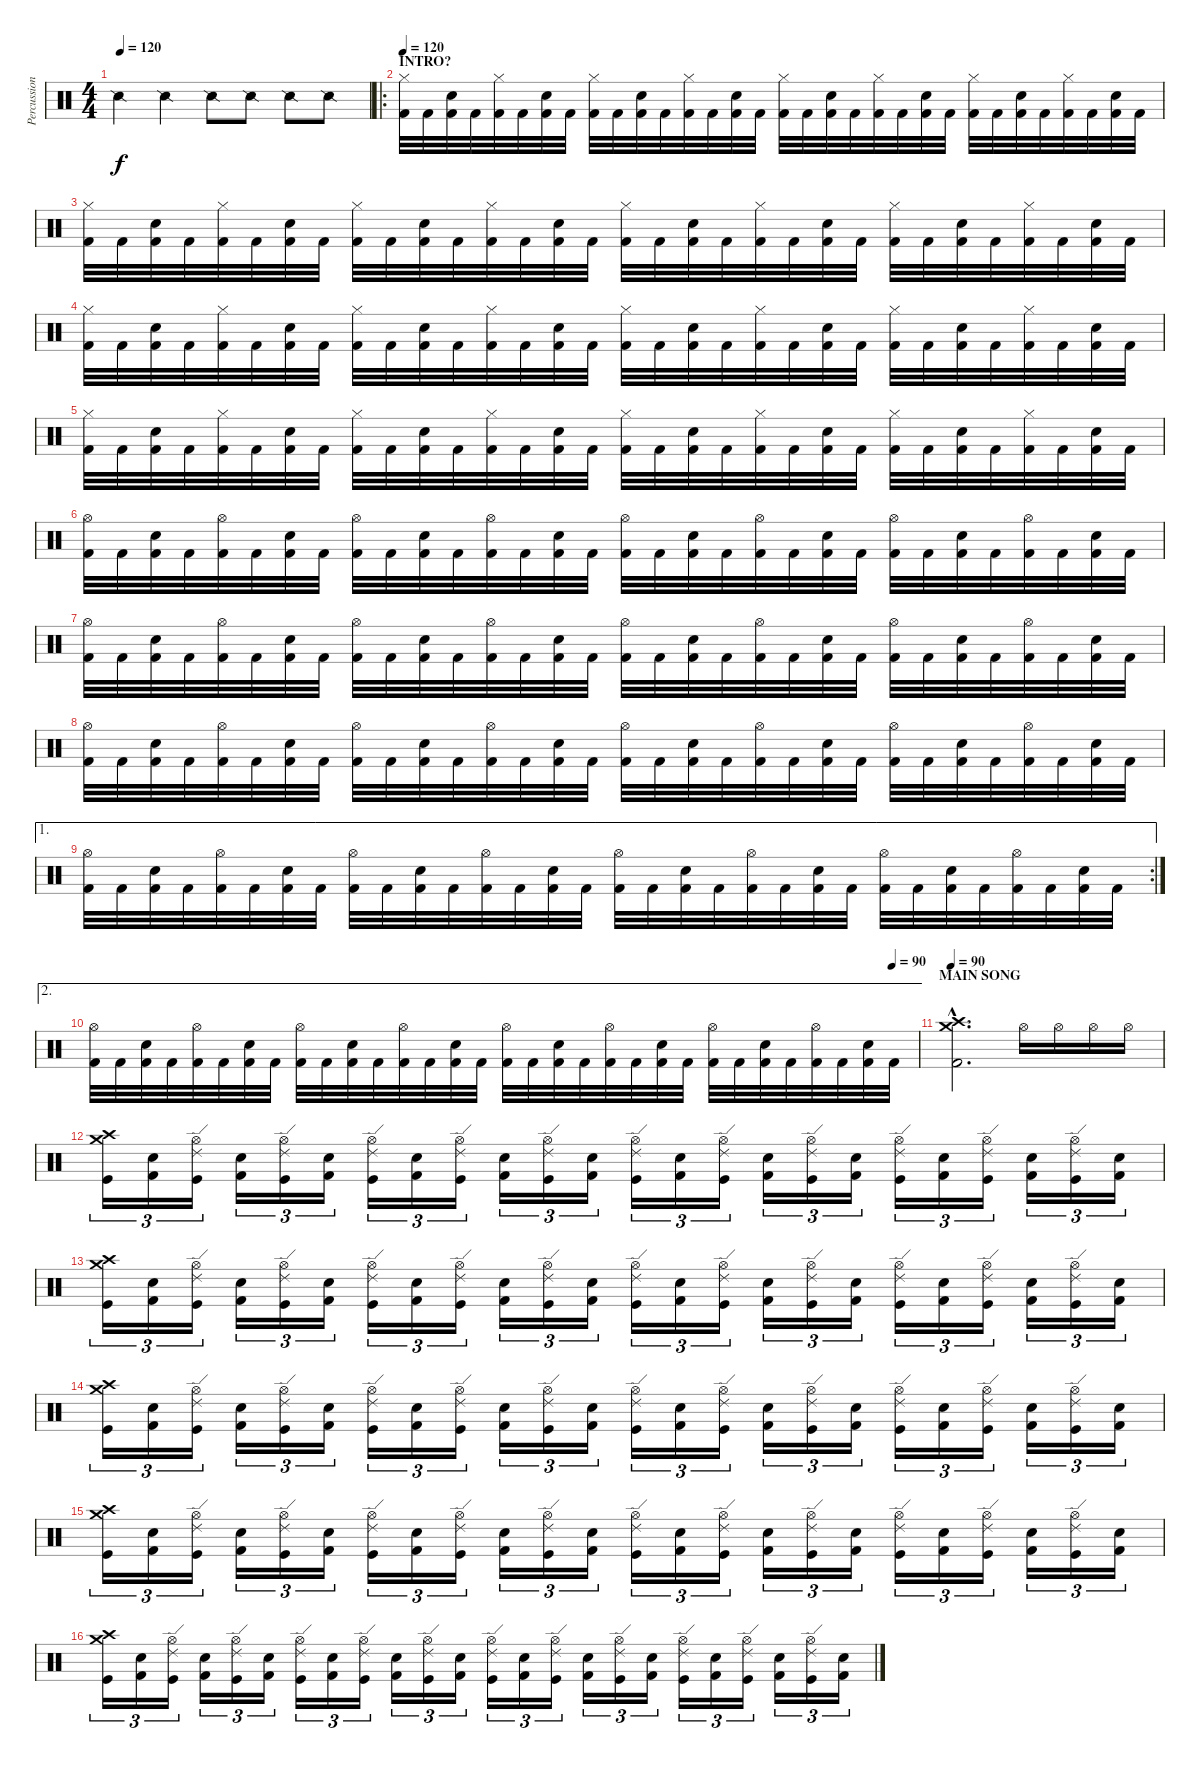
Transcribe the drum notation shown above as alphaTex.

\track ("Percussion" "Percussion") {instrument percussion}
\staff {score}
\articulation defaults
\ts (4 4)
\tempo 120
\clef neutral
\ks c "Snare (side stick) 2".4{dy f} "Snare (side stick) 2".4 "Snare (side stick) 2".8 "Snare (side stick) 2".8 "Snare (side stick) 2".8 "Snare (side stick) 2".8
|
\ro
\section ("" "INTRO?")
\tempo 120
("Hi-Hat (closed)" "Kick (hit) 2").32 "Kick (hit) 2".32 ("Snare (hit) 2" "Kick (hit) 2").32 "Kick (hit) 2".32 ("Hi-Hat (closed)" "Kick (hit) 2").32 "Kick (hit) 2".32 ("Snare (hit) 2" "Kick (hit) 2").32 "Kick (hit) 2".32 ("Hi-Hat (closed)" "Kick (hit) 2").32 "Kick (hit) 2".32 ("Snare (hit) 2" "Kick (hit) 2").32 "Kick (hit) 2".32 ("Hi-Hat (closed)" "Kick (hit) 2").32 "Kick (hit) 2".32 ("Snare (hit) 2" "Kick (hit) 2").32 "Kick (hit) 2".32 ("Hi-Hat (closed)" "Kick (hit) 2").32 "Kick (hit) 2".32 ("Snare (hit) 2" "Kick (hit) 2").32 "Kick (hit) 2".32 ("Hi-Hat (closed)" "Kick (hit) 2").32 "Kick (hit) 2".32 ("Snare (hit) 2" "Kick (hit) 2").32 "Kick (hit) 2".32 ("Hi-Hat (closed)" "Kick (hit) 2").32 "Kick (hit) 2".32 ("Snare (hit) 2" "Kick (hit) 2").32 "Kick (hit) 2".32 ("Hi-Hat (closed)" "Kick (hit) 2").32 "Kick (hit) 2".32 ("Snare (hit) 2" "Kick (hit) 2").32 "Kick (hit) 2".32 |
("Hi-Hat (closed)" "Kick (hit) 2").32 "Kick (hit) 2".32 ("Snare (hit) 2" "Kick (hit) 2").32 "Kick (hit) 2".32 ("Hi-Hat (closed)" "Kick (hit) 2").32 "Kick (hit) 2".32 ("Snare (hit) 2" "Kick (hit) 2").32 "Kick (hit) 2".32 ("Hi-Hat (closed)" "Kick (hit) 2").32 "Kick (hit) 2".32 ("Snare (hit) 2" "Kick (hit) 2").32 "Kick (hit) 2".32 ("Hi-Hat (closed)" "Kick (hit) 2").32 "Kick (hit) 2".32 ("Snare (hit) 2" "Kick (hit) 2").32 "Kick (hit) 2".32 ("Hi-Hat (closed)" "Kick (hit) 2").32 "Kick (hit) 2".32 ("Snare (hit) 2" "Kick (hit) 2").32 "Kick (hit) 2".32 ("Hi-Hat (closed)" "Kick (hit) 2").32 "Kick (hit) 2".32 ("Snare (hit) 2" "Kick (hit) 2").32 "Kick (hit) 2".32 ("Hi-Hat (closed)" "Kick (hit) 2").32 "Kick (hit) 2".32 ("Snare (hit) 2" "Kick (hit) 2").32 "Kick (hit) 2".32 ("Hi-Hat (closed)" "Kick (hit) 2").32 "Kick (hit) 2".32 ("Snare (hit) 2" "Kick (hit) 2").32 "Kick (hit) 2".32 |
("Hi-Hat (closed)" "Kick (hit) 2").32 "Kick (hit) 2".32 ("Snare (hit) 2" "Kick (hit) 2").32 "Kick (hit) 2".32 ("Hi-Hat (closed)" "Kick (hit) 2").32 "Kick (hit) 2".32 ("Snare (hit) 2" "Kick (hit) 2").32 "Kick (hit) 2".32 ("Hi-Hat (closed)" "Kick (hit) 2").32 "Kick (hit) 2".32 ("Snare (hit) 2" "Kick (hit) 2").32 "Kick (hit) 2".32 ("Hi-Hat (closed)" "Kick (hit) 2").32 "Kick (hit) 2".32 ("Snare (hit) 2" "Kick (hit) 2").32 "Kick (hit) 2".32 ("Hi-Hat (closed)" "Kick (hit) 2").32 "Kick (hit) 2".32 ("Snare (hit) 2" "Kick (hit) 2").32 "Kick (hit) 2".32 ("Hi-Hat (closed)" "Kick (hit) 2").32 "Kick (hit) 2".32 ("Snare (hit) 2" "Kick (hit) 2").32 "Kick (hit) 2".32 ("Hi-Hat (closed)" "Kick (hit) 2").32 "Kick (hit) 2".32 ("Snare (hit) 2" "Kick (hit) 2").32 "Kick (hit) 2".32 ("Hi-Hat (closed)" "Kick (hit) 2").32 "Kick (hit) 2".32 ("Snare (hit) 2" "Kick (hit) 2").32 "Kick (hit) 2".32 |
("Hi-Hat (closed)" "Kick (hit) 2").32 "Kick (hit) 2".32 ("Snare (hit) 2" "Kick (hit) 2").32 "Kick (hit) 2".32 ("Hi-Hat (closed)" "Kick (hit) 2").32 "Kick (hit) 2".32 ("Snare (hit) 2" "Kick (hit) 2").32 "Kick (hit) 2".32 ("Hi-Hat (closed)" "Kick (hit) 2").32 "Kick (hit) 2".32 ("Snare (hit) 2" "Kick (hit) 2").32 "Kick (hit) 2".32 ("Hi-Hat (closed)" "Kick (hit) 2").32 "Kick (hit) 2".32 ("Snare (hit) 2" "Kick (hit) 2").32 "Kick (hit) 2".32 ("Hi-Hat (closed)" "Kick (hit) 2").32 "Kick (hit) 2".32 ("Snare (hit) 2" "Kick (hit) 2").32 "Kick (hit) 2".32 ("Hi-Hat (closed)" "Kick (hit) 2").32 "Kick (hit) 2".32 ("Snare (hit) 2" "Kick (hit) 2").32 "Kick (hit) 2".32 ("Hi-Hat (closed)" "Kick (hit) 2").32 "Kick (hit) 2".32 ("Snare (hit) 2" "Kick (hit) 2").32 "Kick (hit) 2".32 ("Hi-Hat (closed)" "Kick (hit) 2").32 "Kick (hit) 2".32 ("Snare (hit) 2" "Kick (hit) 2").32 "Kick (hit) 2".32 |
("Hi-Hat (open)" "Kick (hit) 2").32 "Kick (hit) 2".32 ("Electric Snare (hit)" "Kick (hit) 2").32 "Kick (hit) 2".32 ("Hi-Hat (open)" "Kick (hit) 2").32 "Kick (hit) 2".32 ("Electric Snare (hit)" "Kick (hit) 2").32 "Kick (hit) 2".32 ("Hi-Hat (open)" "Kick (hit) 2").32 "Kick (hit) 2".32 ("Electric Snare (hit)" "Kick (hit) 2").32 "Kick (hit) 2".32 ("Hi-Hat (open)" "Kick (hit) 2").32 "Kick (hit) 2".32 ("Electric Snare (hit)" "Kick (hit) 2").32 "Kick (hit) 2".32 ("Hi-Hat (open)" "Kick (hit) 2").32 "Kick (hit) 2".32 ("Electric Snare (hit)" "Kick (hit) 2").32 "Kick (hit) 2".32 ("Hi-Hat (open)" "Kick (hit) 2").32 "Kick (hit) 2".32 ("Electric Snare (hit)" "Kick (hit) 2").32 "Kick (hit) 2".32 ("Hi-Hat (open)" "Kick (hit) 2").32 "Kick (hit) 2".32 ("Electric Snare (hit)" "Kick (hit) 2").32 "Kick (hit) 2".32 ("Hi-Hat (open)" "Kick (hit) 2").32 "Kick (hit) 2".32 ("Electric Snare (hit)" "Kick (hit) 2").32 "Kick (hit) 2".32 |
("Hi-Hat (open)" "Kick (hit) 2").32 "Kick (hit) 2".32 ("Electric Snare (hit)" "Kick (hit) 2").32 "Kick (hit) 2".32 ("Hi-Hat (open)" "Kick (hit) 2").32 "Kick (hit) 2".32 ("Electric Snare (hit)" "Kick (hit) 2").32 "Kick (hit) 2".32 ("Hi-Hat (open)" "Kick (hit) 2").32 "Kick (hit) 2".32 ("Electric Snare (hit)" "Kick (hit) 2").32 "Kick (hit) 2".32 ("Hi-Hat (open)" "Kick (hit) 2").32 "Kick (hit) 2".32 ("Electric Snare (hit)" "Kick (hit) 2").32 "Kick (hit) 2".32 ("Hi-Hat (open)" "Kick (hit) 2").32 "Kick (hit) 2".32 ("Electric Snare (hit)" "Kick (hit) 2").32 "Kick (hit) 2".32 ("Hi-Hat (open)" "Kick (hit) 2").32 "Kick (hit) 2".32 ("Electric Snare (hit)" "Kick (hit) 2").32 "Kick (hit) 2".32 ("Hi-Hat (open)" "Kick (hit) 2").32 "Kick (hit) 2".32 ("Electric Snare (hit)" "Kick (hit) 2").32 "Kick (hit) 2".32 ("Hi-Hat (open)" "Kick (hit) 2").32 "Kick (hit) 2".32 ("Electric Snare (hit)" "Kick (hit) 2").32 "Kick (hit) 2".32 |
("Hi-Hat (open)" "Kick (hit) 2").32 "Kick (hit) 2".32 ("Electric Snare (hit)" "Kick (hit) 2").32 "Kick (hit) 2".32 ("Hi-Hat (open)" "Kick (hit) 2").32 "Kick (hit) 2".32 ("Electric Snare (hit)" "Kick (hit) 2").32 "Kick (hit) 2".32 ("Hi-Hat (open)" "Kick (hit) 2").32 "Kick (hit) 2".32 ("Electric Snare (hit)" "Kick (hit) 2").32 "Kick (hit) 2".32 ("Hi-Hat (open)" "Kick (hit) 2").32 "Kick (hit) 2".32 ("Electric Snare (hit)" "Kick (hit) 2").32 "Kick (hit) 2".32 ("Hi-Hat (open)" "Kick (hit) 2").32 "Kick (hit) 2".32 ("Electric Snare (hit)" "Kick (hit) 2").32 "Kick (hit) 2".32 ("Hi-Hat (open)" "Kick (hit) 2").32 "Kick (hit) 2".32 ("Electric Snare (hit)" "Kick (hit) 2").32 "Kick (hit) 2".32 ("Hi-Hat (open)" "Kick (hit) 2").32 "Kick (hit) 2".32 ("Electric Snare (hit)" "Kick (hit) 2").32 "Kick (hit) 2".32 ("Hi-Hat (open)" "Kick (hit) 2").32 "Kick (hit) 2".32 ("Electric Snare (hit)" "Kick (hit) 2").32 "Kick (hit) 2".32 |
\ae 1
\rc 2
("Hi-Hat (open)" "Kick (hit) 2").32 "Kick (hit) 2".32 ("Electric Snare (hit)" "Kick (hit) 2").32 "Kick (hit) 2".32 ("Hi-Hat (open)" "Kick (hit) 2").32 "Kick (hit) 2".32 ("Electric Snare (hit)" "Kick (hit) 2").32 "Kick (hit) 2".32 ("Hi-Hat (open)" "Kick (hit) 2").32 "Kick (hit) 2".32 ("Electric Snare (hit)" "Kick (hit) 2").32 "Kick (hit) 2".32 ("Hi-Hat (open)" "Kick (hit) 2").32 "Kick (hit) 2".32 ("Electric Snare (hit)" "Kick (hit) 2").32 "Kick (hit) 2".32 ("Hi-Hat (open)" "Kick (hit) 2").32 "Kick (hit) 2".32 ("Electric Snare (hit)" "Kick (hit) 2").32 "Kick (hit) 2".32 ("Hi-Hat (open)" "Kick (hit) 2").32 "Kick (hit) 2".32 ("Electric Snare (hit)" "Kick (hit) 2").32 "Kick (hit) 2".32 ("Hi-Hat (open)" "Kick (hit) 2").32 "Kick (hit) 2".32 ("Electric Snare (hit)" "Kick (hit) 2").32 "Kick (hit) 2".32 ("Hi-Hat (open)" "Kick (hit) 2").32 "Kick (hit) 2".32 ("Electric Snare (hit)" "Kick (hit) 2").32 "Kick (hit) 2".32 |
\ae 2
\tempo (90 0.96875)
("Hi-Hat (open)" "Kick (hit) 2").32 "Kick (hit) 2".32 ("Electric Snare (hit)" "Kick (hit) 2").32 "Kick (hit) 2".32 ("Hi-Hat (open)" "Kick (hit) 2").32 "Kick (hit) 2".32 ("Electric Snare (hit)" "Kick (hit) 2").32 "Kick (hit) 2".32 ("Hi-Hat (open)" "Kick (hit) 2").32 "Kick (hit) 2".32 ("Electric Snare (hit)" "Kick (hit) 2").32 "Kick (hit) 2".32 ("Hi-Hat (open)" "Kick (hit) 2").32 "Kick (hit) 2".32 ("Electric Snare (hit)" "Kick (hit) 2").32 "Kick (hit) 2".32 ("Hi-Hat (open)" "Kick (hit) 2").32 "Kick (hit) 2".32 ("Electric Snare (hit)" "Kick (hit) 2").32 "Kick (hit) 2".32 ("Hi-Hat (open)" "Kick (hit) 2").32 "Kick (hit) 2".32 ("Electric Snare (hit)" "Kick (hit) 2").32 "Kick (hit) 2".32 ("Hi-Hat (open)" "Kick (hit) 2").32 "Kick (hit) 2".32 ("Electric Snare (hit)" "Kick (hit) 2").32 "Kick (hit) 2".32 ("Hi-Hat (open)" "Kick (hit) 2").32 "Kick (hit) 2".32 ("Electric Snare (hit)" "Kick (hit) 2").32 "Kick (hit) 2".32 |
\section ("" "MAIN SONG")
\tempo 90
("Crash medium (hit)"{hac} "Crash high (hit)"{hac} "Kick (hit) 2"{hac}).2{d} "Hi-Hat (open)".16 "Hi-Hat (open)".16 "Hi-Hat (open)".16 "Hi-Hat (open)".16 |
("Crash high (hit)" "Crash medium (hit)" "Kick (hit)").16{tu (3 2)} ("Snare (hit) 2" "Kick (hit) 2").16{tu (3 2)} ("Hi-Hat (open)" "Ride (edge) 2" "Kick (hit)").16{tu (3 2)} ("Snare (hit) 2" "Kick (hit) 2").16{tu (3 2)} ("Hi-Hat (open)" "Ride (edge) 2" "Kick (hit)").16{tu (3 2)} ("Snare (hit) 2" "Kick (hit) 2").16{tu (3 2)} ("Hi-Hat (open)" "Ride (edge) 2" "Kick (hit)").16{tu (3 2)} ("Snare (hit) 2" "Kick (hit) 2").16{tu (3 2)} ("Hi-Hat (open)" "Ride (edge) 2" "Kick (hit)").16{tu (3 2)} ("Snare (hit) 2" "Kick (hit) 2").16{tu (3 2)} ("Hi-Hat (open)" "Ride (edge) 2" "Kick (hit)").16{tu (3 2)} ("Snare (hit) 2" "Kick (hit) 2").16{tu (3 2)} ("Hi-Hat (open)" "Ride (edge) 2" "Kick (hit)").16{tu (3 2)} ("Snare (hit) 2" "Kick (hit) 2").16{tu (3 2)} ("Hi-Hat (open)" "Ride (edge) 2" "Kick (hit)").16{tu (3 2)} ("Snare (hit) 2" "Kick (hit) 2").16{tu (3 2)} ("Hi-Hat (open)" "Ride (edge) 2" "Kick (hit)").16{tu (3 2)} ("Snare (hit) 2" "Kick (hit) 2").16{tu (3 2)} ("Hi-Hat (open)" "Ride (edge) 2" "Kick (hit)").16{tu (3 2)} ("Snare (hit) 2" "Kick (hit) 2").16{tu (3 2)} ("Hi-Hat (open)" "Ride (edge) 2" "Kick (hit)").16{tu (3 2)} ("Snare (hit) 2" "Kick (hit) 2").16{tu (3 2)} ("Hi-Hat (open)" "Ride (edge) 2" "Kick (hit)").16{tu (3 2)} ("Snare (hit) 2" "Kick (hit) 2").16{tu (3 2)} |
("Crash high (hit)" "Crash medium (hit)" "Kick (hit)").16{tu (3 2)} ("Snare (hit) 2" "Kick (hit) 2").16{tu (3 2)} ("Hi-Hat (open)" "Ride (edge) 2" "Kick (hit)").16{tu (3 2)} ("Snare (hit) 2" "Kick (hit) 2").16{tu (3 2)} ("Hi-Hat (open)" "Ride (edge) 2" "Kick (hit)").16{tu (3 2)} ("Snare (hit) 2" "Kick (hit) 2").16{tu (3 2)} ("Hi-Hat (open)" "Ride (edge) 2" "Kick (hit)").16{tu (3 2)} ("Snare (hit) 2" "Kick (hit) 2").16{tu (3 2)} ("Hi-Hat (open)" "Ride (edge) 2" "Kick (hit)").16{tu (3 2)} ("Snare (hit) 2" "Kick (hit) 2").16{tu (3 2)} ("Hi-Hat (open)" "Ride (edge) 2" "Kick (hit)").16{tu (3 2)} ("Snare (hit) 2" "Kick (hit) 2").16{tu (3 2)} ("Hi-Hat (open)" "Ride (edge) 2" "Kick (hit)").16{tu (3 2)} ("Snare (hit) 2" "Kick (hit) 2").16{tu (3 2)} ("Hi-Hat (open)" "Ride (edge) 2" "Kick (hit)").16{tu (3 2)} ("Snare (hit) 2" "Kick (hit) 2").16{tu (3 2)} ("Hi-Hat (open)" "Ride (edge) 2" "Kick (hit)").16{tu (3 2)} ("Snare (hit) 2" "Kick (hit) 2").16{tu (3 2)} ("Hi-Hat (open)" "Ride (edge) 2" "Kick (hit)").16{tu (3 2)} ("Snare (hit) 2" "Kick (hit) 2").16{tu (3 2)} ("Hi-Hat (open)" "Ride (edge) 2" "Kick (hit)").16{tu (3 2)} ("Snare (hit) 2" "Kick (hit) 2").16{tu (3 2)} ("Hi-Hat (open)" "Ride (edge) 2" "Kick (hit)").16{tu (3 2)} ("Snare (hit) 2" "Kick (hit) 2").16{tu (3 2)} |
("Crash high (hit)" "Crash medium (hit)" "Kick (hit)").16{tu (3 2)} ("Snare (hit) 2" "Kick (hit) 2").16{tu (3 2)} ("Hi-Hat (open)" "Ride (edge) 2" "Kick (hit)").16{tu (3 2)} ("Snare (hit) 2" "Kick (hit) 2").16{tu (3 2)} ("Hi-Hat (open)" "Ride (edge) 2" "Kick (hit)").16{tu (3 2)} ("Snare (hit) 2" "Kick (hit) 2").16{tu (3 2)} ("Hi-Hat (open)" "Ride (edge) 2" "Kick (hit)").16{tu (3 2)} ("Snare (hit) 2" "Kick (hit) 2").16{tu (3 2)} ("Hi-Hat (open)" "Ride (edge) 2" "Kick (hit)").16{tu (3 2)} ("Snare (hit) 2" "Kick (hit) 2").16{tu (3 2)} ("Hi-Hat (open)" "Ride (edge) 2" "Kick (hit)").16{tu (3 2)} ("Snare (hit) 2" "Kick (hit) 2").16{tu (3 2)} ("Hi-Hat (open)" "Ride (edge) 2" "Kick (hit)").16{tu (3 2)} ("Snare (hit) 2" "Kick (hit) 2").16{tu (3 2)} ("Hi-Hat (open)" "Ride (edge) 2" "Kick (hit)").16{tu (3 2)} ("Snare (hit) 2" "Kick (hit) 2").16{tu (3 2)} ("Hi-Hat (open)" "Ride (edge) 2" "Kick (hit)").16{tu (3 2)} ("Snare (hit) 2" "Kick (hit) 2").16{tu (3 2)} ("Hi-Hat (open)" "Ride (edge) 2" "Kick (hit)").16{tu (3 2)} ("Snare (hit) 2" "Kick (hit) 2").16{tu (3 2)} ("Hi-Hat (open)" "Ride (edge) 2" "Kick (hit)").16{tu (3 2)} ("Snare (hit) 2" "Kick (hit) 2").16{tu (3 2)} ("Hi-Hat (open)" "Ride (edge) 2" "Kick (hit)").16{tu (3 2)} ("Snare (hit) 2" "Kick (hit) 2").16{tu (3 2)} |
("Crash high (hit)" "Crash medium (hit)" "Kick (hit)").16{tu (3 2)} ("Snare (hit) 2" "Kick (hit) 2").16{tu (3 2)} ("Hi-Hat (open)" "Ride (edge) 2" "Kick (hit)").16{tu (3 2)} ("Snare (hit) 2" "Kick (hit) 2").16{tu (3 2)} ("Hi-Hat (open)" "Ride (edge) 2" "Kick (hit)").16{tu (3 2)} ("Snare (hit) 2" "Kick (hit) 2").16{tu (3 2)} ("Hi-Hat (open)" "Ride (edge) 2" "Kick (hit)").16{tu (3 2)} ("Snare (hit) 2" "Kick (hit) 2").16{tu (3 2)} ("Hi-Hat (open)" "Ride (edge) 2" "Kick (hit)").16{tu (3 2)} ("Snare (hit) 2" "Kick (hit) 2").16{tu (3 2)} ("Hi-Hat (open)" "Ride (edge) 2" "Kick (hit)").16{tu (3 2)} ("Snare (hit) 2" "Kick (hit) 2").16{tu (3 2)} ("Hi-Hat (open)" "Ride (edge) 2" "Kick (hit)").16{tu (3 2)} ("Snare (hit) 2" "Kick (hit) 2").16{tu (3 2)} ("Hi-Hat (open)" "Ride (edge) 2" "Kick (hit)").16{tu (3 2)} ("Snare (hit) 2" "Kick (hit) 2").16{tu (3 2)} ("Hi-Hat (open)" "Ride (edge) 2" "Kick (hit)").16{tu (3 2)} ("Snare (hit) 2" "Kick (hit) 2").16{tu (3 2)} ("Hi-Hat (open)" "Ride (edge) 2" "Kick (hit)").16{tu (3 2)} ("Snare (hit) 2" "Kick (hit) 2").16{tu (3 2)} ("Hi-Hat (open)" "Ride (edge) 2" "Kick (hit)").16{tu (3 2)} ("Snare (hit) 2" "Kick (hit) 2").16{tu (3 2)} ("Hi-Hat (open)" "Ride (edge) 2" "Kick (hit)").16{tu (3 2)} ("Snare (hit) 2" "Kick (hit) 2").16{tu (3 2)} |
("Crash high (hit)" "Crash medium (hit)" "Kick (hit)").16{tu (3 2)} ("Snare (hit) 2" "Kick (hit) 2").16{tu (3 2)} ("Hi-Hat (open)" "Ride (edge) 2" "Kick (hit)").16{tu (3 2)} ("Snare (hit) 2" "Kick (hit) 2").16{tu (3 2)} ("Hi-Hat (open)" "Ride (edge) 2" "Kick (hit)").16{tu (3 2)} ("Snare (hit) 2" "Kick (hit) 2").16{tu (3 2)} ("Hi-Hat (open)" "Ride (edge) 2" "Kick (hit)").16{tu (3 2)} ("Snare (hit) 2" "Kick (hit) 2").16{tu (3 2)} ("Hi-Hat (open)" "Ride (edge) 2" "Kick (hit)").16{tu (3 2)} ("Snare (hit) 2" "Kick (hit) 2").16{tu (3 2)} ("Hi-Hat (open)" "Ride (edge) 2" "Kick (hit)").16{tu (3 2)} ("Snare (hit) 2" "Kick (hit) 2").16{tu (3 2)} ("Hi-Hat (open)" "Ride (edge) 2" "Kick (hit)").16{tu (3 2)} ("Snare (hit) 2" "Kick (hit) 2").16{tu (3 2)} ("Hi-Hat (open)" "Ride (edge) 2" "Kick (hit)").16{tu (3 2)} ("Snare (hit) 2" "Kick (hit) 2").16{tu (3 2)} ("Hi-Hat (open)" "Ride (edge) 2" "Kick (hit)").16{tu (3 2)} ("Snare (hit) 2" "Kick (hit) 2").16{tu (3 2)} ("Hi-Hat (open)" "Ride (edge) 2" "Kick (hit)").16{tu (3 2)} ("Snare (hit) 2" "Kick (hit) 2").16{tu (3 2)} ("Hi-Hat (open)" "Ride (edge) 2" "Kick (hit)").16{tu (3 2)} ("Snare (hit) 2" "Kick (hit) 2").16{tu (3 2)} ("Hi-Hat (open)" "Ride (edge) 2" "Kick (hit)").16{tu (3 2)} ("Snare (hit) 2" "Kick (hit) 2").16{tu (3 2)}
